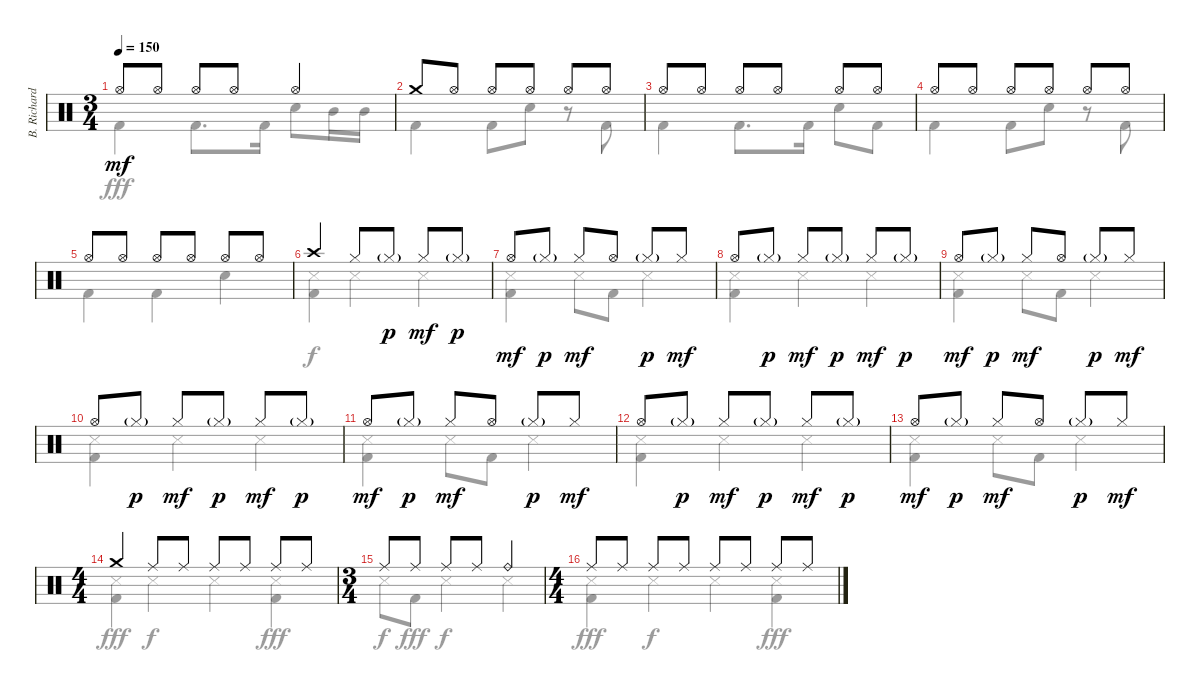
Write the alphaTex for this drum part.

\track ("B. Richardson Drums" "B. Richard") {instrument percussion}
\staff {score}
\articulation defaults
\voice
\ts (3 4)
\tempo 150
\clef neutral
\ks c "Hi-Hat (open)".8{dy mf} "Hi-Hat (open)".8 "Hi-Hat (open)".8 "Hi-Hat (open)".8 "Hi-Hat (open)".4
|
"Crash medium (hit)".8 "Hi-Hat (open)".8 "Hi-Hat (open)".8 "Hi-Hat (open)".8 "Hi-Hat (open)".8 "Hi-Hat (open)".8 |
"Hi-Hat (open)".8 "Hi-Hat (open)".8 "Hi-Hat (open)".8 "Hi-Hat (open)".8 "Hi-Hat (open)".8 "Hi-Hat (open)".8 |
"Hi-Hat (open)".8 "Hi-Hat (open)".8 "Hi-Hat (open)".8 "Hi-Hat (open)".8 "Hi-Hat (open)".8 "Hi-Hat (open)".8 |
"Hi-Hat (open)".8 "Hi-Hat (open)".8 "Hi-Hat (open)".8 "Hi-Hat (open)".8 "Hi-Hat (open)".8 "Hi-Hat (open)".8 |
"Crash high (hit)".4 "Hi-Hat (closed)".8 "Hi-Hat (closed)"{g}.8{dy p} "Hi-Hat (closed)".8{dy mf} "Hi-Hat (closed)"{g}.8{dy p} |
"Hi-Hat (open)".8{dy mf} "Hi-Hat (closed)"{g}.8{dy p} "Hi-Hat (closed)".8{dy mf} "Hi-Hat (open)".8 "Hi-Hat (closed)"{g}.8{dy p} "Hi-Hat (closed)".8{dy mf} |
"Hi-Hat (open)".8 "Hi-Hat (closed)"{g}.8{dy p} "Hi-Hat (closed)".8{dy mf} "Hi-Hat (closed)"{g}.8{dy p} "Hi-Hat (closed)".8{dy mf} "Hi-Hat (closed)"{g}.8{dy p} |
"Hi-Hat (open)".8{dy mf} "Hi-Hat (closed)"{g}.8{dy p} "Hi-Hat (closed)".8{dy mf} "Hi-Hat (open)".8 "Hi-Hat (closed)"{g}.8{dy p} "Hi-Hat (closed)".8{dy mf} |
"Hi-Hat (open)".8 "Hi-Hat (closed)"{g}.8{dy p} "Hi-Hat (closed)".8{dy mf} "Hi-Hat (closed)"{g}.8{dy p} "Hi-Hat (closed)".8{dy mf} "Hi-Hat (closed)"{g}.8{dy p} |
"Hi-Hat (open)".8{dy mf} "Hi-Hat (closed)"{g}.8{dy p} "Hi-Hat (closed)".8{dy mf} "Hi-Hat (open)".8 "Hi-Hat (closed)"{g}.8{dy p} "Hi-Hat (closed)".8{dy mf} |
"Hi-Hat (open)".8 "Hi-Hat (closed)"{g}.8{dy p} "Hi-Hat (closed)".8{dy mf} "Hi-Hat (closed)"{g}.8{dy p} "Hi-Hat (closed)".8{dy mf} "Hi-Hat (closed)"{g}.8{dy p} |
"Hi-Hat (open)".8{dy mf} "Hi-Hat (closed)"{g}.8{dy p} "Hi-Hat (closed)".8{dy mf} "Hi-Hat (open)".8 "Hi-Hat (closed)"{g}.8{dy p} "Hi-Hat (closed)".8{dy mf} |
\ts (4 4)
"Crash medium (hit)".4 "Ride (middle)".8 "Ride (middle)".8 "Ride (middle)".8 "Ride (middle)".8 "Ride (middle)".8 "Ride (middle)".8 |
\ts (3 4)
"Ride (middle)".8 "Ride (middle)".8 "Ride (middle)".8 "Ride (middle)".8 "Ride (bell)".4 |
\ts (4 4)
"Ride (middle)".8 "Ride (middle)".8 "Ride (middle)".8 "Ride (middle)".8 "Ride (middle)".8 "Ride (middle)".8 "Ride (middle)".8 "Ride (middle)".8
\voice
\clef neutral
\ottava regular
\simile none
\ks c "Kick (hit) 2".4{dy fff} "Kick (hit) 2".8{d} "Kick (hit) 2".16 "Electric Snare (hit)".8 "Mid Tom (hit)".16 "Mid Tom (hit)".16
|
"Kick (hit) 2".4 "Kick (hit) 2".8 "Electric Snare (hit)".8 r.8 "Kick (hit) 2".8 |
"Kick (hit) 2".4 "Kick (hit) 2".8{d} "Kick (hit) 2".16 "Electric Snare (hit)".8 "Kick (hit) 2".8 |
"Kick (hit) 2".4 "Kick (hit) 2".8 "Electric Snare (hit)".8 r.8 "Kick (hit) 2".8 |
"Kick (hit) 2".4 "Kick (hit) 2".4 "Electric Snare (hit)".4 |
("Snare (side stick) 3" "Kick (hit) 2").4{dy f} "Snare (side stick) 3".4 "Snare (side stick) 3".4 |
("Snare (side stick) 3" "Kick (hit) 2").4 "Snare (side stick) 3".8 "Kick (hit) 2".8 "Snare (side stick) 3".4 |
("Snare (side stick) 3" "Kick (hit) 2").4 "Snare (side stick) 3".4 "Snare (side stick) 3".4 |
("Snare (side stick) 3" "Kick (hit) 2").4 "Snare (side stick) 3".8 "Kick (hit) 2".8 "Snare (side stick) 3".4 |
("Snare (side stick) 3" "Kick (hit) 2").4 "Snare (side stick) 3".4 "Snare (side stick) 3".4 |
("Snare (side stick) 3" "Kick (hit) 2").4 "Snare (side stick) 3".8 "Kick (hit) 2".8 "Snare (side stick) 3".4 |
("Snare (side stick) 3" "Kick (hit) 2").4 "Snare (side stick) 3".4 "Snare (side stick) 3".4 |
("Snare (side stick) 3" "Kick (hit) 2").4 "Snare (side stick) 3".8 "Kick (hit) 2".8 "Snare (side stick) 3".4 |
("Snare (side stick) 3" "Kick (hit) 2").4{dy fff} "Snare (side stick) 3".4{dy f} "Snare (side stick) 3".4 ("Snare (side stick) 3" "Kick (hit) 2").4{dy fff} |
"Snare (side stick) 3".8{dy f} "Kick (hit) 2".8{dy fff} "Snare (side stick) 3".4{dy f} "Snare (side stick) 3".4 |
("Snare (side stick) 3" "Kick (hit) 2").4{dy fff} "Snare (side stick) 3".4{dy f} "Snare (side stick) 3".4 ("Snare (side stick) 3" "Kick (hit) 2").4{dy fff}
